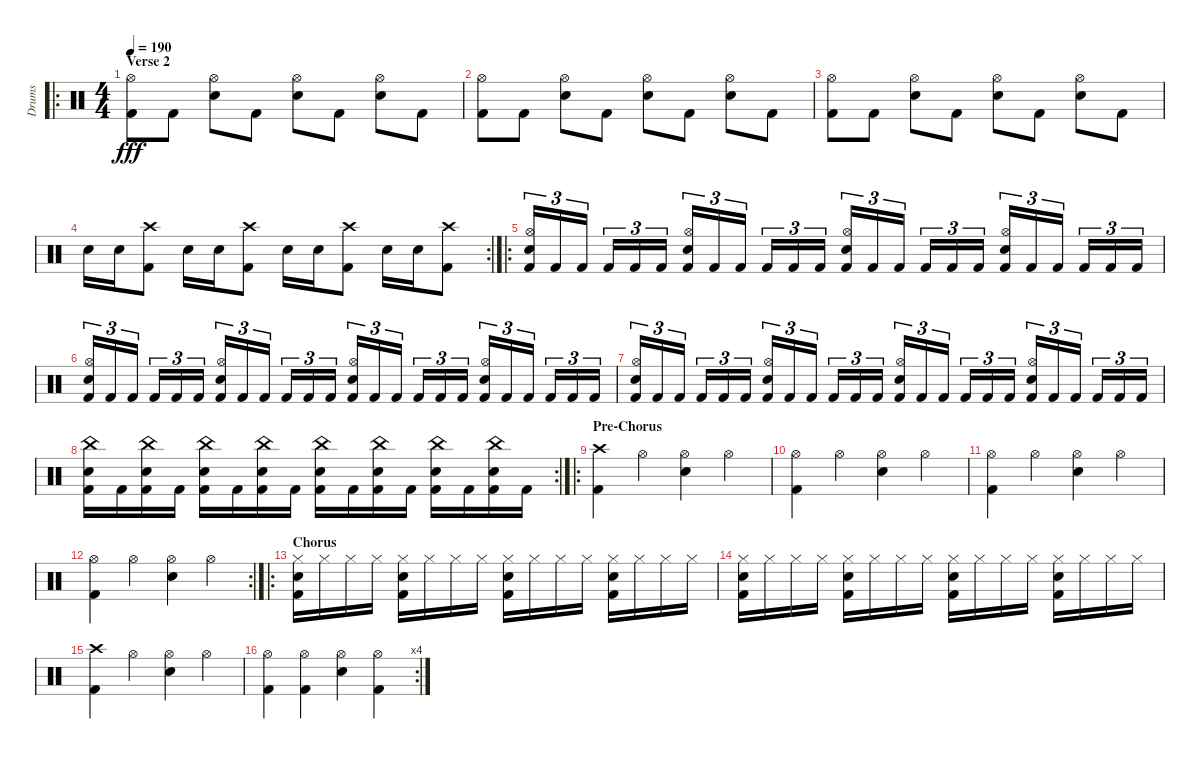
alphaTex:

\track ("Drums" "Drums") {instrument percussion}
\staff {score}
\articulation defaults
\ro
\ts (4 4)
\section ("" "Verse 2")
\tempo 190
\clef neutral
\ks c
("Kick (hit) 2" "Hi-Hat (open)").8{dy fff} "Kick (hit) 2".8 ("Electric Snare (hit)" "Hi-Hat (open)").8 "Kick (hit) 2".8 ("Electric Snare (hit)" "Hi-Hat (open)").8 "Kick (hit) 2".8 ("Electric Snare (hit)" "Hi-Hat (open)").8 "Kick (hit) 2".8 |
("Kick (hit) 2" "Hi-Hat (open)").8 "Kick (hit) 2".8 ("Electric Snare (hit)" "Hi-Hat (open)").8 "Kick (hit) 2".8 ("Electric Snare (hit)" "Hi-Hat (open)").8 "Kick (hit) 2".8 ("Electric Snare (hit)" "Hi-Hat (open)").8 "Kick (hit) 2".8 |
("Kick (hit) 2" "Hi-Hat (open)").8 "Kick (hit) 2".8 ("Electric Snare (hit)" "Hi-Hat (open)").8 "Kick (hit) 2".8 ("Electric Snare (hit)" "Hi-Hat (open)").8 "Kick (hit) 2".8 ("Electric Snare (hit)" "Hi-Hat (open)").8 "Kick (hit) 2".8 |
\rc 2 "Electric Snare (hit)".16 "Electric Snare (hit)".16
("Crash high (hit)" "Kick (hit) 2").8 "Electric Snare (hit)".16 "Electric Snare (hit)".16 ("Crash high (hit)" "Kick (hit) 2").8 "Electric Snare (hit)".16 "Electric Snare (hit)".16 ("Crash high (hit)" "Kick (hit) 2").8 "Electric Snare (hit)".16 "Electric Snare (hit)".16 ("Crash high (hit)" "Kick (hit) 2").8 |
\ro
("Hi-Hat (open)" "Kick (hit) 2" "Electric Snare (hit)").16{tu (3 2)} "Kick (hit) 2".16{tu (3 2)} "Kick (hit) 2".16{tu (3 2)} "Kick (hit) 2".16{tu (3 2)} "Kick (hit) 2".16{tu (3 2)} "Kick (hit) 2".16{tu (3 2)} ("Hi-Hat (open)" "Kick (hit) 2" "Electric Snare (hit)").16{tu (3 2)} "Kick (hit) 2".16{tu (3 2)} "Kick (hit) 2".16{tu (3 2)} "Kick (hit) 2".16{tu (3 2)} "Kick (hit) 2".16{tu (3 2)} "Kick (hit) 2".16{tu (3 2)} ("Hi-Hat (open)" "Kick (hit) 2" "Electric Snare (hit)").16{tu (3 2)} "Kick (hit) 2".16{tu (3 2)} "Kick (hit) 2".16{tu (3 2)} "Kick (hit) 2".16{tu (3 2)} "Kick (hit) 2".16{tu (3 2)} "Kick (hit) 2".16{tu (3 2)} ("Hi-Hat (open)" "Kick (hit) 2" "Electric Snare (hit)").16{tu (3 2)} "Kick (hit) 2".16{tu (3 2)} "Kick (hit) 2".16{tu (3 2)} "Kick (hit) 2".16{tu (3 2)} "Kick (hit) 2".16{tu (3 2)} "Kick (hit) 2".16{tu (3 2)} |
("Hi-Hat (open)" "Kick (hit) 2" "Electric Snare (hit)").16{tu (3 2)} "Kick (hit) 2".16{tu (3 2)} "Kick (hit) 2".16{tu (3 2)} "Kick (hit) 2".16{tu (3 2)} "Kick (hit) 2".16{tu (3 2)} "Kick (hit) 2".16{tu (3 2)} ("Hi-Hat (open)" "Kick (hit) 2" "Electric Snare (hit)").16{tu (3 2)} "Kick (hit) 2".16{tu (3 2)} "Kick (hit) 2".16{tu (3 2)} "Kick (hit) 2".16{tu (3 2)} "Kick (hit) 2".16{tu (3 2)} "Kick (hit) 2".16{tu (3 2)} ("Hi-Hat (open)" "Kick (hit) 2" "Electric Snare (hit)").16{tu (3 2)} "Kick (hit) 2".16{tu (3 2)} "Kick (hit) 2".16{tu (3 2)} "Kick (hit) 2".16{tu (3 2)} "Kick (hit) 2".16{tu (3 2)} "Kick (hit) 2".16{tu (3 2)} ("Hi-Hat (open)" "Kick (hit) 2" "Electric Snare (hit)").16{tu (3 2)} "Kick (hit) 2".16{tu (3 2)} "Kick (hit) 2".16{tu (3 2)} "Kick (hit) 2".16{tu (3 2)} "Kick (hit) 2".16{tu (3 2)} "Kick (hit) 2".16{tu (3 2)} |
("Hi-Hat (open)" "Kick (hit) 2" "Electric Snare (hit)").16{tu (3 2)} "Kick (hit) 2".16{tu (3 2)} "Kick (hit) 2".16{tu (3 2)} "Kick (hit) 2".16{tu (3 2)} "Kick (hit) 2".16{tu (3 2)} "Kick (hit) 2".16{tu (3 2)} ("Hi-Hat (open)" "Kick (hit) 2" "Electric Snare (hit)").16{tu (3 2)} "Kick (hit) 2".16{tu (3 2)} "Kick (hit) 2".16{tu (3 2)} "Kick (hit) 2".16{tu (3 2)} "Kick (hit) 2".16{tu (3 2)} "Kick (hit) 2".16{tu (3 2)} ("Hi-Hat (open)" "Kick (hit) 2" "Electric Snare (hit)").16{tu (3 2)} "Kick (hit) 2".16{tu (3 2)} "Kick (hit) 2".16{tu (3 2)} "Kick (hit) 2".16{tu (3 2)} "Kick (hit) 2".16{tu (3 2)} "Kick (hit) 2".16{tu (3 2)} ("Hi-Hat (open)" "Kick (hit) 2" "Electric Snare (hit)").16{tu (3 2)} "Kick (hit) 2".16{tu (3 2)} "Kick (hit) 2".16{tu (3 2)} "Kick (hit) 2".16{tu (3 2)} "Kick (hit) 2".16{tu (3 2)} "Kick (hit) 2".16{tu (3 2)} |
\rc 2
("Kick (hit) 2" "China (hit)" "Electric Snare (hit)").16 "Kick (hit) 2".16 ("Kick (hit) 2" "China (hit)" "Electric Snare (hit)").16 "Kick (hit) 2".16 ("Kick (hit) 2" "China (hit)" "Electric Snare (hit)").16 "Kick (hit) 2".16 ("Kick (hit) 2" "China (hit)" "Electric Snare (hit)").16 "Kick (hit) 2".16 ("Kick (hit) 2" "China (hit)" "Electric Snare (hit)").16 "Kick (hit) 2".16 ("Kick (hit) 2" "China (hit)" "Electric Snare (hit)").16 "Kick (hit) 2".16 ("Kick (hit) 2" "China (hit)" "Electric Snare (hit)").16 "Kick (hit) 2".16 ("Kick (hit) 2" "China (hit)" "Electric Snare (hit)").16 "Kick (hit) 2".16 |
\ro
\section ("" "Pre-Chorus")
("Crash high (hit)" "Kick (hit) 2").4 "Hi-Hat (open)".4 ("Hi-Hat (open)" "Electric Snare (hit)").4 "Hi-Hat (open)".4 |
("Hi-Hat (open)" "Kick (hit) 2").4 "Hi-Hat (open)".4 ("Hi-Hat (open)" "Electric Snare (hit)").4 "Hi-Hat (open)".4 |
("Hi-Hat (open)" "Kick (hit) 2").4 "Hi-Hat (open)".4 ("Hi-Hat (open)" "Electric Snare (hit)").4 "Hi-Hat (open)".4 |
\rc 2
("Hi-Hat (open)" "Kick (hit) 2").4 "Hi-Hat (open)".4 ("Hi-Hat (open)" "Electric Snare (hit)").4 "Hi-Hat (open)".4 |
\ro
\section ("" "Chorus")
("Hi-Hat (closed)" "Kick (hit) 2" "Electric Snare (hit)").16 "Hi-Hat (closed)".16 "Hi-Hat (closed)".16 "Hi-Hat (closed)".16 ("Hi-Hat (closed)" "Kick (hit) 2" "Electric Snare (hit)").16 "Hi-Hat (closed)".16 "Hi-Hat (closed)".16 "Hi-Hat (closed)".16 ("Hi-Hat (closed)" "Kick (hit) 2" "Electric Snare (hit)").16 "Hi-Hat (closed)".16 "Hi-Hat (closed)".16 "Hi-Hat (closed)".16 ("Hi-Hat (closed)" "Kick (hit) 2" "Electric Snare (hit)").16 "Hi-Hat (closed)".16 "Hi-Hat (closed)".16 "Hi-Hat (closed)".16 |
("Hi-Hat (closed)" "Kick (hit) 2" "Electric Snare (hit)").16 "Hi-Hat (closed)".16 "Hi-Hat (closed)".16 "Hi-Hat (closed)".16 ("Hi-Hat (closed)" "Kick (hit) 2" "Electric Snare (hit)").16 "Hi-Hat (closed)".16 "Hi-Hat (closed)".16 "Hi-Hat (closed)".16 ("Hi-Hat (closed)" "Kick (hit) 2" "Electric Snare (hit)").16 "Hi-Hat (closed)".16 "Hi-Hat (closed)".16 "Hi-Hat (closed)".16 ("Hi-Hat (closed)" "Kick (hit) 2" "Electric Snare (hit)").16 "Hi-Hat (closed)".16 "Hi-Hat (closed)".16 "Hi-Hat (closed)".16 |
("Crash high (hit)" "Kick (hit) 2").4 "Hi-Hat (open)".4 ("Hi-Hat (open)" "Electric Snare (hit)").4 "Hi-Hat (open)".4 |
\rc 4
("Hi-Hat (open)" "Kick (hit) 2").4 ("Hi-Hat (open)" "Kick (hit) 2").4 ("Hi-Hat (open)" "Electric Snare (hit)").4 ("Hi-Hat (open)" "Kick (hit) 2").4
